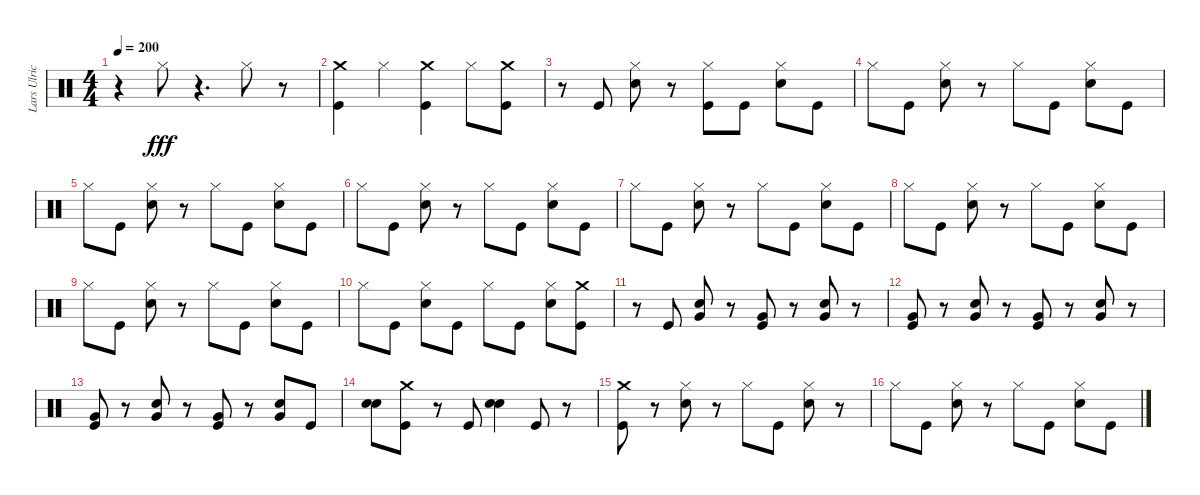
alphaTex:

\track ("Lars Ulrich" "Lars Ulric") {instrument percussion}
\staff {score}
\articulation defaults
\ts (4 4)
\tempo 200
\clef neutral
\ks c
r.4{dy fff} "Hi-Hat (closed)".8 r.4{d} "Hi-Hat (closed)".8 r.8 |
("Crash medium (hit)" "Kick (hit)").4 "Hi-Hat (closed)".4 ("Crash medium (hit)" "Kick (hit)").4 "Hi-Hat (closed)".8 ("Crash medium (hit)" "Kick (hit)").8 |
r.8 "Kick (hit)".8 ("Snare (hit) 2" "Hi-Hat (closed)").8 r.8 ("Kick (hit)" "Hi-Hat (closed)").8 "Kick (hit)".8 ("Hi-Hat (closed)" "Snare (hit) 2").8 "Kick (hit)".8 |
"Hi-Hat (closed)".8 "Kick (hit)".8 ("Hi-Hat (closed)" "Snare (hit) 2").8 r.8 "Hi-Hat (closed)".8 "Kick (hit)".8 ("Hi-Hat (closed)" "Snare (hit) 2").8 "Kick (hit)".8 |
"Hi-Hat (closed)".8 "Kick (hit)".8 ("Hi-Hat (closed)" "Snare (hit) 2").8 r.8 "Hi-Hat (closed)".8 "Kick (hit)".8 ("Hi-Hat (closed)" "Snare (hit) 2").8 "Kick (hit)".8 |
"Hi-Hat (closed)".8 "Kick (hit)".8 ("Hi-Hat (closed)" "Snare (hit) 2").8 r.8 "Hi-Hat (closed)".8 "Kick (hit)".8 ("Hi-Hat (closed)" "Snare (hit) 2").8 "Kick (hit)".8 |
"Hi-Hat (closed)".8 "Kick (hit)".8 ("Hi-Hat (closed)" "Snare (hit) 2").8 r.8 "Hi-Hat (closed)".8 "Kick (hit)".8 ("Hi-Hat (closed)" "Snare (hit) 2").8 "Kick (hit)".8 |
"Hi-Hat (closed)".8 "Kick (hit)".8 ("Hi-Hat (closed)" "Snare (hit) 2").8 r.8 "Hi-Hat (closed)".8 "Kick (hit)".8 ("Snare (hit) 2" "Hi-Hat (closed)").8 "Kick (hit)".8 |
"Hi-Hat (closed)".8 "Kick (hit)".8 ("Hi-Hat (closed)" "Snare (hit) 2").8 r.8 "Hi-Hat (closed)".8 "Kick (hit)".8 ("Hi-Hat (closed)" "Snare (hit) 2").8 "Kick (hit)".8 |
"Hi-Hat (closed)".8 "Kick (hit)".8 ("Hi-Hat (closed)" "Snare (hit) 2").8 "Kick (hit)".8 "Hi-Hat (closed)".8 "Kick (hit)".8 ("Hi-Hat (closed)" "Snare (hit) 2").8 ("Crash medium (hit)" "Kick (hit)").8 |
r.8 "Kick (hit)".8 ("Very Low Tom (hit)" "Snare (hit) 2").8 r.8 ("Kick (hit)" "Very Low Tom (hit)").8 r.8 ("Very Low Tom (hit)" "Snare (hit) 2").8 r.8 |
("Very Low Tom (hit)" "Kick (hit)").8 r.8 ("Very Low Tom (hit)" "Snare (hit) 2").8 r.8 ("Very Low Tom (hit)" "Kick (hit)").8 r.8 ("Snare (hit) 2" "Very Low Tom (hit)").8 r.8 |
("Very Low Tom (hit)" "Kick (hit)").8 r.8 ("Snare (hit) 2" "Very Low Tom (hit)").8 r.8 ("Very Low Tom (hit)" "Kick (hit)").8 r.8 ("Very Low Tom (hit)" "Snare (hit) 2").8 "Kick (hit)".8 |
("Snare (hit) 2" "Snare (hit) 2").8 ("Kick (hit)" "Crash medium (hit)").8 r.8 "Kick (hit)".8 ("Snare (hit) 2" "Snare (hit) 2").4 "Kick (hit)".8 r.8 |
("Crash medium (hit)" "Kick (hit)").8 r.8 ("Snare (hit) 2" "Hi-Hat (closed)").8 r.8 "Hi-Hat (closed)".8 "Kick (hit)".8 ("Hi-Hat (closed)" "Snare (hit) 2").8 r.8 |
"Hi-Hat (closed)".8 "Kick (hit)".8 ("Hi-Hat (closed)" "Snare (hit) 2").8 r.8 "Hi-Hat (closed)".8 "Kick (hit)".8 ("Hi-Hat (closed)" "Snare (hit) 2").8 "Kick (hit)".8
